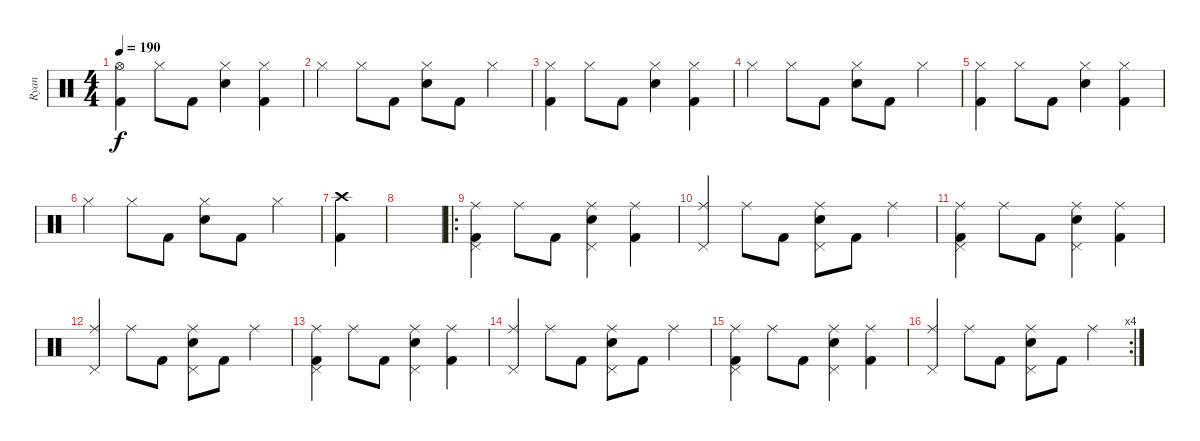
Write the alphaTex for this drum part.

\track ("Ryan" "Ryan") {instrument percussion}
\staff {score}
\articulation defaults
\ts (4 4)
\tempo 190
\clef neutral
\ks c
("Hi-Hat (open)" "Kick (hit) 2").4{dy f} "Hi-Hat (closed)".8 "Kick (hit) 2".8 ("Hi-Hat (closed)" "Snare (hit) 2").4 ("Hi-Hat (closed)" "Kick (hit) 2").4 |
"Hi-Hat (closed)".4 "Hi-Hat (closed)".8 "Kick (hit) 2".8 ("Hi-Hat (closed)" "Snare (hit) 2").8 "Kick (hit) 2".8 "Hi-Hat (closed)".4 |
("Hi-Hat (closed)" "Kick (hit) 2").4 "Hi-Hat (closed)".8 "Kick (hit) 2".8 ("Hi-Hat (closed)" "Snare (hit) 2").4 ("Hi-Hat (closed)" "Kick (hit) 2").4 |
"Hi-Hat (closed)".4 "Hi-Hat (closed)".8 "Kick (hit) 2".8 ("Hi-Hat (closed)" "Snare (hit) 2").8 "Kick (hit) 2".8 "Hi-Hat (closed)".4 |
("Hi-Hat (closed)" "Kick (hit) 2").4 "Hi-Hat (closed)".8 "Kick (hit) 2".8 ("Hi-Hat (closed)" "Snare (hit) 2").4 ("Hi-Hat (closed)" "Kick (hit) 2").4 |
"Hi-Hat (closed)".4 "Hi-Hat (closed)".8 "Kick (hit) 2".8 ("Hi-Hat (closed)" "Snare (hit) 2").8 "Kick (hit) 2".8 "Hi-Hat (closed)".4 |
("Crash high (hit)" "Kick (hit) 2").4 |
|
\ro
("Pedal Hi-Hat (hit)" "Ride (middle)" "Kick (hit) 2").4 "Ride (middle)".8 "Kick (hit) 2".8 ("Pedal Hi-Hat (hit)" "Ride (middle)" "Snare (hit) 2").4 ("Ride (middle)" "Kick (hit) 2").4 |
("Pedal Hi-Hat (hit)" "Ride (middle)").4 "Ride (middle)".8 "Kick (hit) 2".8 ("Pedal Hi-Hat (hit)" "Ride (middle)" "Snare (hit) 2").8 "Kick (hit) 2".8 "Ride (middle)".4 |
("Pedal Hi-Hat (hit)" "Ride (middle)" "Kick (hit) 2").4 "Ride (middle)".8 "Kick (hit) 2".8 ("Pedal Hi-Hat (hit)" "Ride (middle)" "Snare (hit) 2").4 ("Ride (middle)" "Kick (hit) 2").4 |
("Pedal Hi-Hat (hit)" "Ride (middle)").4 "Ride (middle)".8 "Kick (hit) 2".8 ("Pedal Hi-Hat (hit)" "Ride (middle)" "Snare (hit) 2").8 "Kick (hit) 2".8 "Ride (middle)".4 |
("Pedal Hi-Hat (hit)" "Ride (middle)" "Kick (hit) 2").4 "Ride (middle)".8 "Kick (hit) 2".8 ("Pedal Hi-Hat (hit)" "Ride (middle)" "Snare (hit) 2").4 ("Ride (middle)" "Kick (hit) 2").4 |
("Pedal Hi-Hat (hit)" "Ride (middle)").4 "Ride (middle)".8 "Kick (hit) 2".8 ("Pedal Hi-Hat (hit)" "Ride (middle)" "Snare (hit) 2").8 "Kick (hit) 2".8 "Ride (middle)".4 |
("Pedal Hi-Hat (hit)" "Ride (middle)" "Kick (hit) 2").4 "Ride (middle)".8 "Kick (hit) 2".8 ("Pedal Hi-Hat (hit)" "Ride (middle)" "Snare (hit) 2").4 ("Ride (middle)" "Kick (hit) 2").4 |
\rc 4
("Pedal Hi-Hat (hit)" "Ride (middle)").4 "Ride (middle)".8 "Kick (hit) 2".8 ("Pedal Hi-Hat (hit)" "Ride (middle)" "Snare (hit) 2").8 "Kick (hit) 2".8 "Ride (middle)".4
